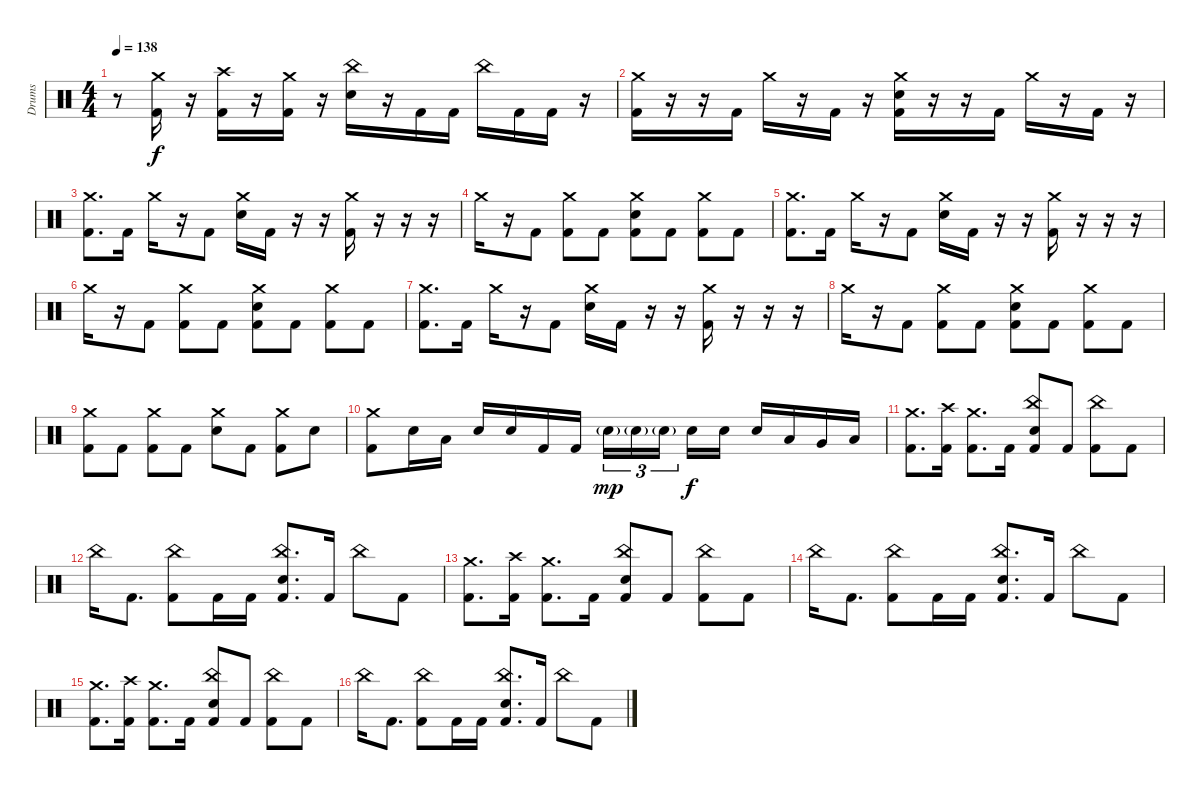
\track ("Drums" "Drums") {instrument percussion}
\staff {score}
\articulation defaults
\ts (4 4)
\tempo 138
\clef neutral
\ks c
r.8{dy f} ("Crash medium (hit)" "Kick (hit) 2").16 r.16 ("Crash high (hit)" "Kick (hit) 2").16 r.16 ("Crash medium (hit)" "Kick (hit) 2").16 r.16 ("China (hit)" "Electric Snare (hit)").16 r.16 "Kick (hit) 2".16 "Kick (hit) 2".16 "China (hit)".16 "Kick (hit) 2".16 "Kick (hit) 2".16 r.16 |
("Crash medium (hit)" "Kick (hit) 2").16 r.16 r.16 "Kick (hit) 2".16 "Crash medium (hit)".16 r.16 "Kick (hit) 2".16 r.16 ("Crash medium (hit)" "Electric Snare (hit)" "Kick (hit) 2").16 r.16 r.16 "Kick (hit) 2".16 "Crash medium (hit)".16 r.16 "Kick (hit) 2".16 r.16 |
("Crash medium (hit)" "Kick (hit) 2").8{d} "Kick (hit) 2".16 "Crash medium (hit)".16 r.16 "Kick (hit) 2".8 ("Crash medium (hit)" "Electric Snare (hit)").16 "Kick (hit) 2".16 r.16 r.16 ("Crash medium (hit)" "Kick (hit) 2").16 r.16 r.16 r.16 |
"Crash medium (hit)".16 r.16 "Kick (hit) 2".8 ("Crash medium (hit)" "Kick (hit) 2").8 "Kick (hit) 2".8 ("Crash medium (hit)" "Electric Snare (hit)" "Kick (hit) 2").8 "Kick (hit) 2".8 ("Crash medium (hit)" "Kick (hit) 2").8 "Kick (hit) 2".8 |
("Crash medium (hit)" "Kick (hit) 2").8{d} "Kick (hit) 2".16 "Crash medium (hit)".16 r.16 "Kick (hit) 2".8 ("Crash medium (hit)" "Electric Snare (hit)").16 "Kick (hit) 2".16 r.16 r.16 ("Crash medium (hit)" "Kick (hit) 2").16 r.16 r.16 r.16 |
"Crash medium (hit)".16 r.16 "Kick (hit) 2".8 ("Crash medium (hit)" "Kick (hit) 2").8 "Kick (hit) 2".8 ("Crash medium (hit)" "Electric Snare (hit)" "Kick (hit) 2").8 "Kick (hit) 2".8 ("Crash medium (hit)" "Kick (hit) 2").8 "Kick (hit) 2".8 |
("Crash medium (hit)" "Kick (hit) 2").8{d} "Kick (hit) 2".16 "Crash medium (hit)".16 r.16 "Kick (hit) 2".8 ("Crash medium (hit)" "Electric Snare (hit)").16 "Kick (hit) 2".16 r.16 r.16 ("Crash medium (hit)" "Kick (hit) 2").16 r.16 r.16 r.16 |
"Crash medium (hit)".16 r.16 "Kick (hit) 2".8 ("Crash medium (hit)" "Kick (hit) 2").8 "Kick (hit) 2".8 ("Crash medium (hit)" "Electric Snare (hit)" "Kick (hit) 2").8 "Kick (hit) 2".8 ("Crash medium (hit)" "Kick (hit) 2").8 "Kick (hit) 2".8 |
("Crash medium (hit)" "Kick (hit) 2").8 "Kick (hit) 2".8 ("Crash medium (hit)" "Kick (hit) 2").8 "Kick (hit) 2".8 ("Crash medium (hit)" "Electric Snare (hit)").8 "Kick (hit) 2".8 ("Crash medium (hit)" "Kick (hit) 2").8 "Electric Snare (hit)".8 |
("Crash medium (hit)" "Kick (hit) 2").8 "Electric Snare (hit)".16 "Low Floor Tom (hit)".16 "Electric Snare (hit)".16 "Electric Snare (hit)".16 "Kick (hit) 2".16 "Kick (hit) 2".16 "Snare (hit) 2"{g}.16{tu (3 2) dy mp} "Snare (hit) 2"{g}.16{tu (3 2)} "Snare (hit) 2"{g}.16{tu (3 2)} "Electric Snare (hit)".16{dy f} "Electric Snare (hit)".16 "Electric Snare (hit)".16 "Low Tom (hit)".16 "Very Low Tom (hit)".16 "Low Floor Tom (hit)".16 |
("Crash medium (hit)" "Kick (hit) 2").8{d} ("Crash high (hit)" "Kick (hit) 2").16 ("Crash medium (hit)" "Kick (hit) 2").8{d} "Kick (hit) 2".16 ("China (hit)" "Electric Snare (hit)" "Kick (hit) 2").8 "Kick (hit) 2".8 ("China (hit)" "Kick (hit) 2").8 "Kick (hit) 2".8 |
"China (hit)".16 "Kick (hit) 2".8{d} ("China (hit)" "Kick (hit) 2").8 "Kick (hit) 2".16 "Kick (hit) 2".16 ("China (hit)" "Electric Snare (hit)" "Kick (hit) 2").8{d} "Kick (hit) 2".16 "China (hit)".8 "Kick (hit) 2".8 |
("Crash medium (hit)" "Kick (hit) 2").8{d} ("Crash high (hit)" "Kick (hit) 2").16 ("Crash medium (hit)" "Kick (hit) 2").8{d} "Kick (hit) 2".16 ("China (hit)" "Electric Snare (hit)" "Kick (hit) 2").8 "Kick (hit) 2".8 ("China (hit)" "Kick (hit) 2").8 "Kick (hit) 2".8 |
"China (hit)".16 "Kick (hit) 2".8{d} ("China (hit)" "Kick (hit) 2").8 "Kick (hit) 2".16 "Kick (hit) 2".16 ("China (hit)" "Electric Snare (hit)" "Kick (hit) 2").8{d} "Kick (hit) 2".16 "China (hit)".8 "Kick (hit) 2".8 |
("Crash medium (hit)" "Kick (hit) 2").8{d} ("Crash high (hit)" "Kick (hit) 2").16 ("Crash medium (hit)" "Kick (hit) 2").8{d} "Kick (hit) 2".16 ("China (hit)" "Electric Snare (hit)" "Kick (hit) 2").8 "Kick (hit) 2".8 ("China (hit)" "Kick (hit) 2").8 "Kick (hit) 2".8 |
"China (hit)".16 "Kick (hit) 2".8{d} ("China (hit)" "Kick (hit) 2").8 "Kick (hit) 2".16 "Kick (hit) 2".16 ("China (hit)" "Electric Snare (hit)" "Kick (hit) 2").8{d} "Kick (hit) 2".16 "China (hit)".8 "Kick (hit) 2".8
